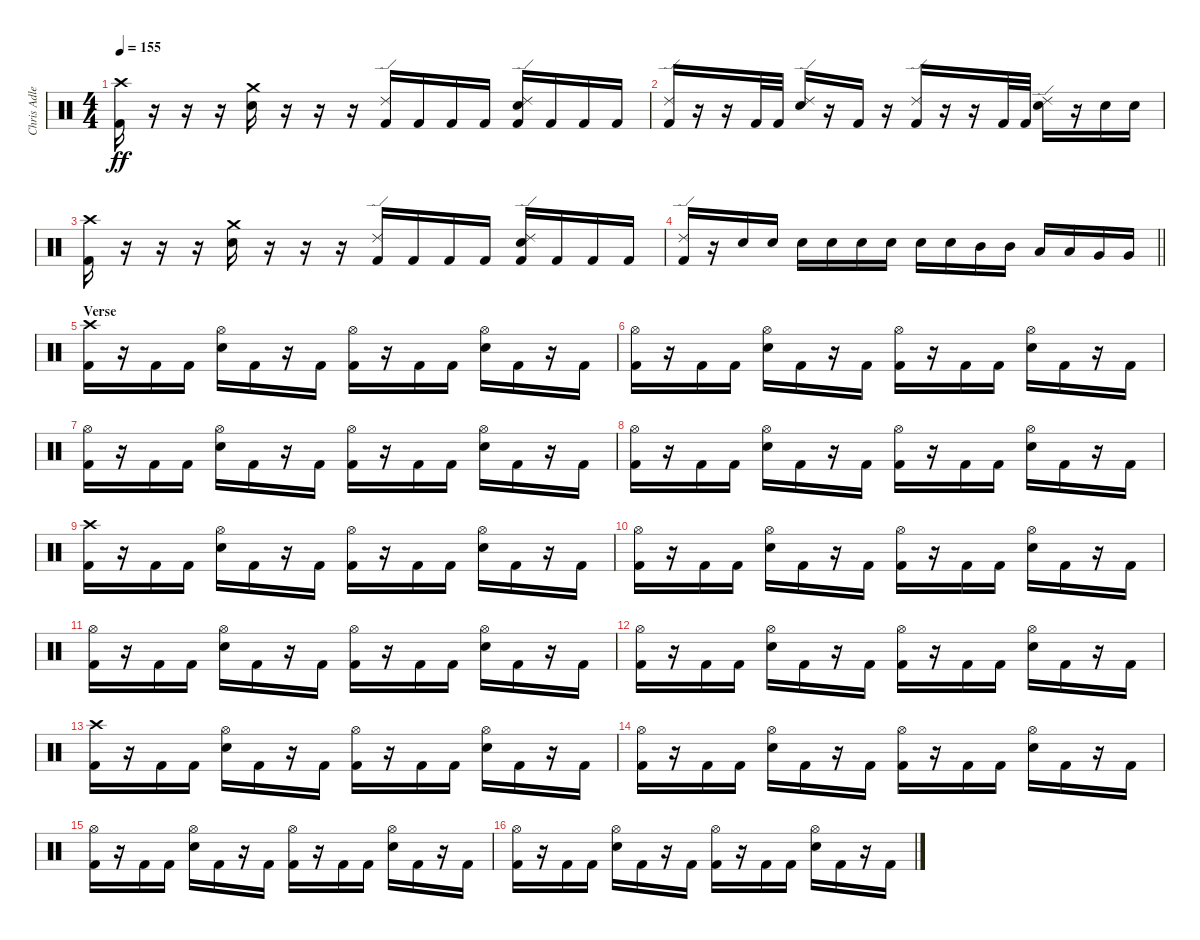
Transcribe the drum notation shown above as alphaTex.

\track ("Chris Adler" "Chris Adle") {instrument percussion}
\staff {score}
\articulation defaults
\ts (4 4)
\tempo 155
\clef neutral
\ks c
("Crash high (hit)" "Kick (hit) 2").16{dy ff} r.16 r.16 r.16 ("Crash medium (hit)" "Snare (hit) 2").16 r.16 r.16 r.16 ("Ride (edge) 2" "Kick (hit) 2").16 "Kick (hit) 2".16 "Kick (hit) 2".16 "Kick (hit) 2".16 ("Ride (edge) 2" "Snare (hit) 2" "Kick (hit) 2").16 "Kick (hit) 2".16 "Kick (hit) 2".16 "Kick (hit) 2".16 |
("Ride (edge) 2" "Kick (hit) 2").16 r.16 r.16 "Kick (hit) 2".32 "Kick (hit) 2".32 ("Ride (edge) 2" "Snare (hit) 2").16 r.16 "Kick (hit) 2".16 r.16 ("Ride (edge) 2" "Kick (hit) 2").16 r.16 r.16 "Kick (hit) 2".32 "Kick (hit) 2".32 ("Ride (edge) 2" "Snare (hit) 2").16 r.16 "Snare (hit) 2".16 "Snare (hit) 2".16 |
("Crash high (hit)" "Kick (hit) 2").16 r.16 r.16 r.16 ("Crash medium (hit)" "Snare (hit) 2").16 r.16 r.16 r.16 ("Ride (edge) 2" "Kick (hit) 2").16 "Kick (hit) 2".16 "Kick (hit) 2".16 "Kick (hit) 2".16 ("Ride (edge) 2" "Snare (hit) 2" "Kick (hit) 2").16 "Kick (hit) 2".16 "Kick (hit) 2".16 "Kick (hit) 2".16 |
\barLineRight lightlight
("Ride (edge) 2" "Kick (hit) 2").16 r.16 "Snare (hit) 2".16 "Snare (hit) 2".16 "Snare (hit) 2".16 "Snare (hit) 2".16 "Snare (hit) 2".16 "Snare (hit) 2".16 "Snare (hit) 2".16 "Snare (hit) 2".16 "Mid Tom (hit)".16 "Mid Tom (hit)".16 "Low Tom (hit)".16 "Low Tom (hit)".16 "Very Low Tom (hit)".16 "Very Low Tom (hit)".16 |
\section ("" "Verse")
("Crash high (hit)" "Kick (hit) 2").16 r.16 "Kick (hit) 2".16 "Kick (hit) 2".16 ("Hi-Hat (open)" "Snare (hit) 2").16 "Kick (hit) 2".16 r.16 "Kick (hit) 2".16 ("Hi-Hat (open)" "Kick (hit) 2").16 r.16 "Kick (hit) 2".16 "Kick (hit) 2".16 ("Hi-Hat (open)" "Snare (hit) 2").16 "Kick (hit) 2".16 r.16 "Kick (hit) 2".16 |
("Hi-Hat (open)" "Kick (hit) 2").16 r.16 "Kick (hit) 2".16 "Kick (hit) 2".16 ("Hi-Hat (open)" "Snare (hit) 2").16 "Kick (hit) 2".16 r.16 "Kick (hit) 2".16 ("Hi-Hat (open)" "Kick (hit) 2").16 r.16 "Kick (hit) 2".16 "Kick (hit) 2".16 ("Hi-Hat (open)" "Snare (hit) 2").16 "Kick (hit) 2".16 r.16 "Kick (hit) 2".16 |
("Hi-Hat (open)" "Kick (hit) 2").16 r.16 "Kick (hit) 2".16 "Kick (hit) 2".16 ("Hi-Hat (open)" "Snare (hit) 2").16 "Kick (hit) 2".16 r.16 "Kick (hit) 2".16 ("Hi-Hat (open)" "Kick (hit) 2").16 r.16 "Kick (hit) 2".16 "Kick (hit) 2".16 ("Hi-Hat (open)" "Snare (hit) 2").16 "Kick (hit) 2".16 r.16 "Kick (hit) 2".16 |
("Hi-Hat (open)" "Kick (hit) 2").16 r.16 "Kick (hit) 2".16 "Kick (hit) 2".16 ("Hi-Hat (open)" "Snare (hit) 2").16 "Kick (hit) 2".16 r.16 "Kick (hit) 2".16 ("Hi-Hat (open)" "Kick (hit) 2").16 r.16 "Kick (hit) 2".16 "Kick (hit) 2".16 ("Hi-Hat (open)" "Snare (hit) 2").16 "Kick (hit) 2".16 r.16 "Kick (hit) 2".16 |
("Crash high (hit)" "Kick (hit) 2").16 r.16 "Kick (hit) 2".16 "Kick (hit) 2".16 ("Hi-Hat (open)" "Snare (hit) 2").16 "Kick (hit) 2".16 r.16 "Kick (hit) 2".16 ("Hi-Hat (open)" "Kick (hit) 2").16 r.16 "Kick (hit) 2".16 "Kick (hit) 2".16 ("Hi-Hat (open)" "Snare (hit) 2").16 "Kick (hit) 2".16 r.16 "Kick (hit) 2".16 |
("Hi-Hat (open)" "Kick (hit) 2").16 r.16 "Kick (hit) 2".16 "Kick (hit) 2".16 ("Hi-Hat (open)" "Snare (hit) 2").16 "Kick (hit) 2".16 r.16 "Kick (hit) 2".16 ("Hi-Hat (open)" "Kick (hit) 2").16 r.16 "Kick (hit) 2".16 "Kick (hit) 2".16 ("Hi-Hat (open)" "Snare (hit) 2").16 "Kick (hit) 2".16 r.16 "Kick (hit) 2".16 |
("Hi-Hat (open)" "Kick (hit) 2").16 r.16 "Kick (hit) 2".16 "Kick (hit) 2".16 ("Hi-Hat (open)" "Snare (hit) 2").16 "Kick (hit) 2".16 r.16 "Kick (hit) 2".16 ("Hi-Hat (open)" "Kick (hit) 2").16 r.16 "Kick (hit) 2".16 "Kick (hit) 2".16 ("Hi-Hat (open)" "Snare (hit) 2").16 "Kick (hit) 2".16 r.16 "Kick (hit) 2".16 |
("Hi-Hat (open)" "Kick (hit) 2").16 r.16 "Kick (hit) 2".16 "Kick (hit) 2".16 ("Hi-Hat (open)" "Snare (hit) 2").16 "Kick (hit) 2".16 r.16 "Kick (hit) 2".16 ("Hi-Hat (open)" "Kick (hit) 2").16 r.16 "Kick (hit) 2".16 "Kick (hit) 2".16 ("Hi-Hat (open)" "Snare (hit) 2").16 "Kick (hit) 2".16 r.16 "Kick (hit) 2".16 |
("Crash high (hit)" "Kick (hit) 2").16 r.16 "Kick (hit) 2".16 "Kick (hit) 2".16 ("Hi-Hat (open)" "Snare (hit) 2").16 "Kick (hit) 2".16 r.16 "Kick (hit) 2".16 ("Hi-Hat (open)" "Kick (hit) 2").16 r.16 "Kick (hit) 2".16 "Kick (hit) 2".16 ("Hi-Hat (open)" "Snare (hit) 2").16 "Kick (hit) 2".16 r.16 "Kick (hit) 2".16 |
("Hi-Hat (open)" "Kick (hit) 2").16 r.16 "Kick (hit) 2".16 "Kick (hit) 2".16 ("Hi-Hat (open)" "Snare (hit) 2").16 "Kick (hit) 2".16 r.16 "Kick (hit) 2".16 ("Hi-Hat (open)" "Kick (hit) 2").16 r.16 "Kick (hit) 2".16 "Kick (hit) 2".16 ("Hi-Hat (open)" "Snare (hit) 2").16 "Kick (hit) 2".16 r.16 "Kick (hit) 2".16 |
("Hi-Hat (open)" "Kick (hit) 2").16 r.16 "Kick (hit) 2".16 "Kick (hit) 2".16 ("Hi-Hat (open)" "Snare (hit) 2").16 "Kick (hit) 2".16 r.16 "Kick (hit) 2".16 ("Hi-Hat (open)" "Kick (hit) 2").16 r.16 "Kick (hit) 2".16 "Kick (hit) 2".16 ("Hi-Hat (open)" "Snare (hit) 2").16 "Kick (hit) 2".16 r.16 "Kick (hit) 2".16 |
("Hi-Hat (open)" "Kick (hit) 2").16 r.16 "Kick (hit) 2".16 "Kick (hit) 2".16 ("Hi-Hat (open)" "Snare (hit) 2").16 "Kick (hit) 2".16 r.16 "Kick (hit) 2".16 ("Hi-Hat (open)" "Kick (hit) 2").16 r.16 "Kick (hit) 2".16 "Kick (hit) 2".16 ("Hi-Hat (open)" "Snare (hit) 2").16 "Kick (hit) 2".16 r.16 "Kick (hit) 2".16
